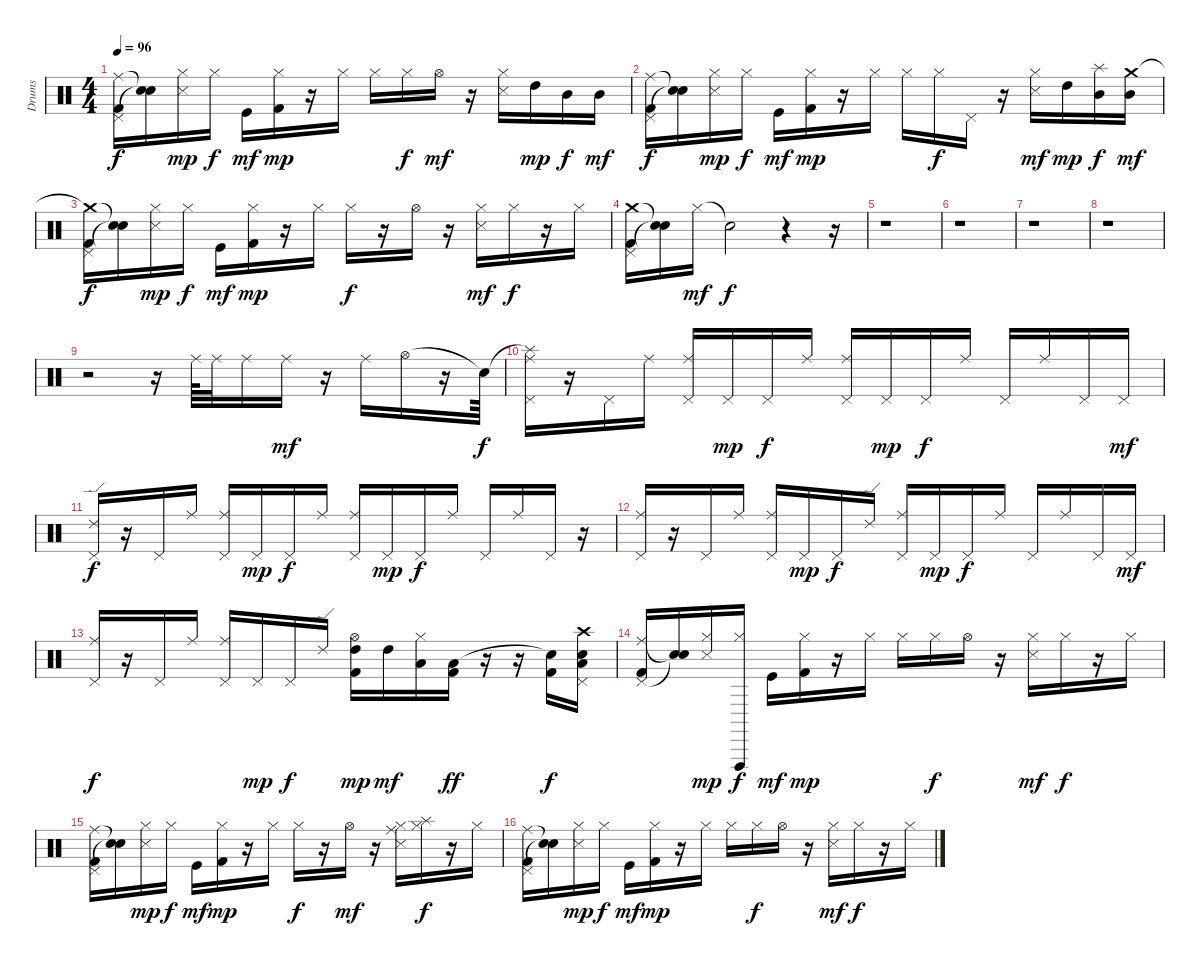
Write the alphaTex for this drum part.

\track ("Drums" "Drums") {instrument percussion}
\staff {score}
\articulation defaults
\ts (4 4)
\tempo 96
\clef neutral
\ks c
("Ride (middle)" "Pedal Hi-Hat (hit)" "Kick (hit) 2").16{dy f} ("Snare (hit)"{t} "Snare (hit)"{t}).16 ("Hi-Hat (closed)" "Snare (side stick) 3").16{dy mp} "Hi-Hat (closed)".16{dy f} "Kick (hit)".16{dy mf} ("Hi-Hat (closed)" "Kick (hit) 2").16{dy mp} r.16 "Hi-Hat (closed)".16 "Hi-Hat (closed)".16 "Hi-Hat (closed)".16{dy f} "Hi-Hat (open)".16{dy mf} r.16 ("Hi-Hat (closed)" "Snare (side stick) 3").16 "High Tom (hit)".16{dy mp} "Mid Tom (hit)".16{dy f} "Mid Tom (hit)".16{dy mf} |
("Ride (middle)" "Pedal Hi-Hat (hit)" "Kick (hit) 2").16{dy f} ("Snare (hit)"{t} "Snare (hit)"{t}).16 ("Hi-Hat (closed)" "Snare (side stick) 3").16{dy mp} "Hi-Hat (closed)".16{dy f} "Kick (hit)".16{dy mf} ("Hi-Hat (closed)" "Kick (hit) 2").16{dy mp} r.16 "Hi-Hat (closed)".16 "Hi-Hat (closed)".16 "Hi-Hat (closed)".16{dy f} "Pedal Hi-Hat (hit)".16 r.16 ("Hi-Hat (closed)" "Snare (side stick) 3").16{dy mf} "High Tom (hit)".16{dy mp} ("Splash (hit)" "Mid Tom (hit)").16{dy f} ("Crash medium (hit)" "Mid Tom (hit)").16{dy mf} |
("Crash medium (hit)"{t} "Pedal Hi-Hat (hit)" "Kick (hit) 2").16{dy f} ("Snare (hit)"{t} "Snare (hit)"{t}).16 ("Hi-Hat (closed)" "Snare (side stick) 3").16{dy mp} "Hi-Hat (closed)".16{dy f} "Kick (hit)".16{dy mf} ("Hi-Hat (closed)" "Kick (hit) 2").16{dy mp} r.16 "Hi-Hat (closed)".16 "Hi-Hat (closed)".16{dy f} r.16 "Hi-Hat (open)".16 r.16 ("Hi-Hat (closed)" "Snare (side stick) 3").16{dy mf} "Hi-Hat (closed)".16{dy f} r.16 "Hi-Hat (closed)".16 |
("Crash medium (hit)" "Pedal Hi-Hat (hit)" "Kick (hit) 2").16 ("Snare (hit)"{t} "Snare (hit)"{t}).16 "Hi-Hat (closed)".16{dy mf} "Snare (hit)"{t}.2{dy f} r.4 r.16 |
r.1 |
r.1 |
r.1 |
r.1 |
r.2 r.16 "Ride (middle)".64 "Ride (middle)".32 "Ride (middle)".16 "Ride (middle)".16{dy mf} r.16 "Ride (middle)".16 "Hi-Hat (open)".16 r.16 "Snare (hit)"{t}.64{dy f} |
("Splash (hit)"{t} "Ride (middle)" "Pedal Hi-Hat (hit)").16 r.16 "Pedal Hi-Hat (hit)".16 "Ride (middle)".16 ("Ride (middle)" "Pedal Hi-Hat (hit)").16 "Pedal Hi-Hat (hit)".16{dy mp} "Pedal Hi-Hat (hit)".16{dy f} "Ride (middle)".16 ("Ride (middle)" "Pedal Hi-Hat (hit)").16 "Pedal Hi-Hat (hit)".16{dy mp} "Pedal Hi-Hat (hit)".16{dy f} "Ride (middle)".16 "Pedal Hi-Hat (hit)".16 "Ride (middle)".16 "Pedal Hi-Hat (hit)".16 "Pedal Hi-Hat (hit)".16{dy mf} |
("Ride (edge) 2" "Pedal Hi-Hat (hit)").16{dy f} r.16 "Pedal Hi-Hat (hit)".16 "Ride (middle)".16 ("Ride (middle)" "Pedal Hi-Hat (hit)").16 "Pedal Hi-Hat (hit)".16{dy mp} "Pedal Hi-Hat (hit)".16{dy f} "Ride (middle)".16 ("Ride (middle)" "Pedal Hi-Hat (hit)").16 "Pedal Hi-Hat (hit)".16{dy mp} "Pedal Hi-Hat (hit)".16{dy f} "Ride (middle)".16 "Pedal Hi-Hat (hit)".16 "Ride (middle)".16 "Pedal Hi-Hat (hit)".16 r.16 |
("Ride (middle)" "Pedal Hi-Hat (hit)").16 r.16 "Pedal Hi-Hat (hit)".16 "Ride (middle)".16 ("Ride (middle)" "Pedal Hi-Hat (hit)").16 "Pedal Hi-Hat (hit)".16{dy mp} "Pedal Hi-Hat (hit)".16{dy f} "Ride (edge) 2".16 ("Ride (middle)" "Pedal Hi-Hat (hit)").16 "Pedal Hi-Hat (hit)".16{dy mp} "Pedal Hi-Hat (hit)".16{dy f} "Ride (middle)".16 "Pedal Hi-Hat (hit)".16 "Ride (middle)".16 "Pedal Hi-Hat (hit)".16 "Pedal Hi-Hat (hit)".16{dy mf} |
("Ride (middle)" "Pedal Hi-Hat (hit)").16{dy f} r.16 "Pedal Hi-Hat (hit)".16 "Ride (middle)".16 ("Ride (middle)" "Pedal Hi-Hat (hit)").16 "Pedal Hi-Hat (hit)".16{dy mp} "Pedal Hi-Hat (hit)".16{dy f} "Ride (edge) 2".16 ("Hi-Hat (open)" "High Tom (hit)" "Kick (hit) 2").16{dy mp} "High Tom (hit)".16{dy mf} ("Hi-Hat (closed)" "Low Tom (hit)").16 ("Low Tom (hit)" "Kick (hit) 2").16{dy ff} r.16 r.16 ("Snare (hit)"{t} "Kick (hit) 2").16{dy f} ("Crash high (hit)" "Pedal Hi-Hat (hit)" "Low Tom (hit)" "Snare (hit) 2").16 |
("Ride (middle)" "Pedal Hi-Hat (hit)" "Kick (hit) 2").16 ("Snare (hit)"{t} "Snare (hit)"{t}).16 ("Hi-Hat (closed)" "Snare (side stick) 3").16{dy mp} ("Hi-Hat (closed)" "Vibraslap (hit)").16{dy f} "Kick (hit)".16{dy mf} ("Hi-Hat (closed)" "Kick (hit) 2").16{dy mp} r.16 "Hi-Hat (closed)".16 "Hi-Hat (closed)".16 "Hi-Hat (closed)".16{dy f} "Hi-Hat (open)".16 r.16 ("Hi-Hat (closed)" "Snare (side stick) 3").16{dy mf} "Hi-Hat (closed)".16{dy f} r.16 "Hi-Hat (closed)".16 |
("Ride (middle)" "Pedal Hi-Hat (hit)" "Kick (hit) 2").16 ("Snare (hit)"{t} "Snare (hit)"{t}).16 ("Hi-Hat (closed)" "Snare (side stick) 3").16{dy mp} "Hi-Hat (closed)".16{dy f} "Kick (hit)".16{dy mf} ("Hi-Hat (closed)" "Kick (hit) 2").16{dy mp} r.16 "Hi-Hat (closed)".16 "Hi-Hat (closed)".16{dy f} r.16 "Hi-Hat (open)".16{dy mf} r.16 ("Ride (middle)" "Hi-Hat (closed)" "Snare (side stick) 3").16 ("Splash (hit)" "Hi-Hat (closed)").16{dy f} r.16 "Hi-Hat (closed)".16 |
("Ride (middle)" "Pedal Hi-Hat (hit)" "Kick (hit) 2").16 ("Snare (hit)"{t} "Snare (hit)"{t}).16 ("Hi-Hat (closed)" "Snare (side stick) 3").16{dy mp} "Hi-Hat (closed)".16{dy f} "Kick (hit)".16{dy mf} ("Hi-Hat (closed)" "Kick (hit) 2").16{dy mp} r.16 "Hi-Hat (closed)".16 "Hi-Hat (closed)".16 "Hi-Hat (closed)".16{dy f} "Hi-Hat (open)".16 r.16 ("Hi-Hat (closed)" "Snare (side stick) 3").16{dy mf} "Hi-Hat (closed)".16{dy f} r.16 "Hi-Hat (closed)".16
